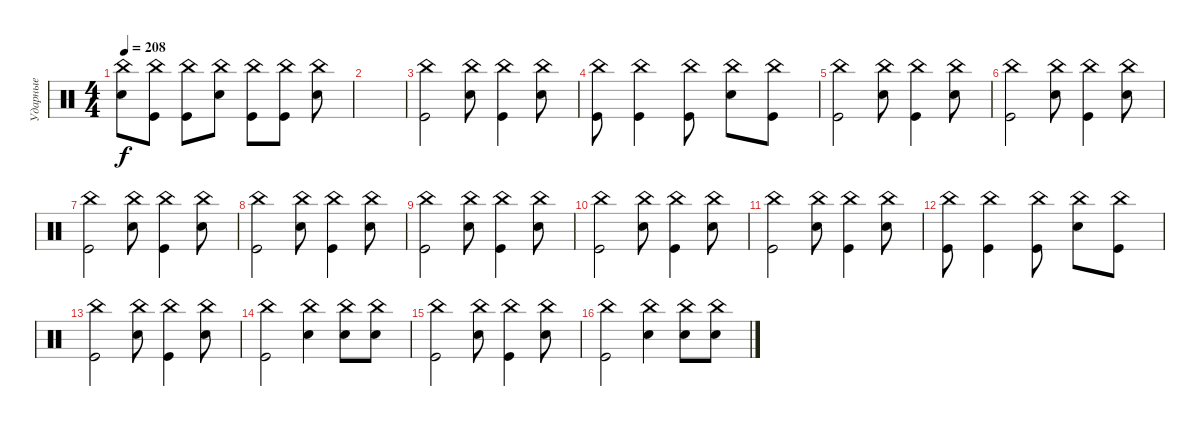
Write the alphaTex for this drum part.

\track ("Ударные" "Ударные") {instrument percussion}
\staff {score}
\articulation defaults
\ts (4 4)
\tempo 208
\clef neutral
\ks c
("Snare (hit) 2" "China (hit)").8{dy f} ("Kick (hit)" "China (hit)").8 ("Kick (hit)" "China (hit)").8 ("Snare (hit) 2" "China (hit)").8 ("Kick (hit)" "China (hit)").8 ("Kick (hit)" "China (hit)").8 ("Snare (hit) 2" "China (hit)").8 |
|
("Kick (hit)" "China (hit)").2 ("Snare (hit) 2" "China (hit)").8 ("Kick (hit)" "China (hit)").4 ("Snare (hit) 2" "China (hit)").8 |
("Kick (hit)" "China (hit)").8 ("Kick (hit)" "China (hit)").4 ("Kick (hit)" "China (hit)").8 ("Snare (hit) 2" "China (hit)").8 ("Kick (hit)" "China (hit)").8 |
("Kick (hit)" "China (hit)").2 ("Snare (hit) 2" "China (hit)").8 ("Kick (hit)" "China (hit)").4 ("Snare (hit) 2" "China (hit)").8 |
("Kick (hit)" "China (hit)").2 ("Snare (hit) 2" "China (hit)").8 ("Kick (hit)" "China (hit)").4 ("Snare (hit) 2" "China (hit)").8 |
("Kick (hit)" "China (hit)").2 ("Snare (hit) 2" "China (hit)").8 ("Kick (hit)" "China (hit)").4 ("Snare (hit) 2" "China (hit)").8 |
("Kick (hit)" "China (hit)").2 ("Snare (hit) 2" "China (hit)").8 ("Kick (hit)" "China (hit)").4 ("Snare (hit) 2" "China (hit)").8 |
("Kick (hit)" "China (hit)").2 ("Snare (hit) 2" "China (hit)").8 ("Kick (hit)" "China (hit)").4 ("Snare (hit) 2" "China (hit)").8 |
("Kick (hit)" "China (hit)").2 ("Snare (hit) 2" "China (hit)").8 ("Kick (hit)" "China (hit)").4 ("Snare (hit) 2" "China (hit)").8 |
("Kick (hit)" "China (hit)").2 ("Snare (hit) 2" "China (hit)").8 ("Kick (hit)" "China (hit)").4 ("Snare (hit) 2" "China (hit)").8 |
("Kick (hit)" "China (hit)").8 ("Kick (hit)" "China (hit)").4 ("Kick (hit)" "China (hit)").8 ("Snare (hit) 2" "China (hit)").8 ("Kick (hit)" "China (hit)").8 |
("Kick (hit)" "China (hit)").2 ("Snare (hit) 2" "China (hit)").8 ("Kick (hit)" "China (hit)").4 ("Snare (hit) 2" "China (hit)").8 |
("Kick (hit)" "China (hit)").2 ("Snare (hit) 2" "China (hit)").4 ("Snare (hit) 2" "China (hit)").8 ("Snare (hit) 2" "China (hit)").8 |
("Kick (hit)" "China (hit)").2 ("Snare (hit) 2" "China (hit)").8 ("Kick (hit)" "China (hit)").4 ("Snare (hit) 2" "China (hit)").8 |
("Kick (hit)" "China (hit)").2 ("Snare (hit) 2" "China (hit)").4 ("Snare (hit) 2" "China (hit)").8 ("Snare (hit) 2" "China (hit)").8
